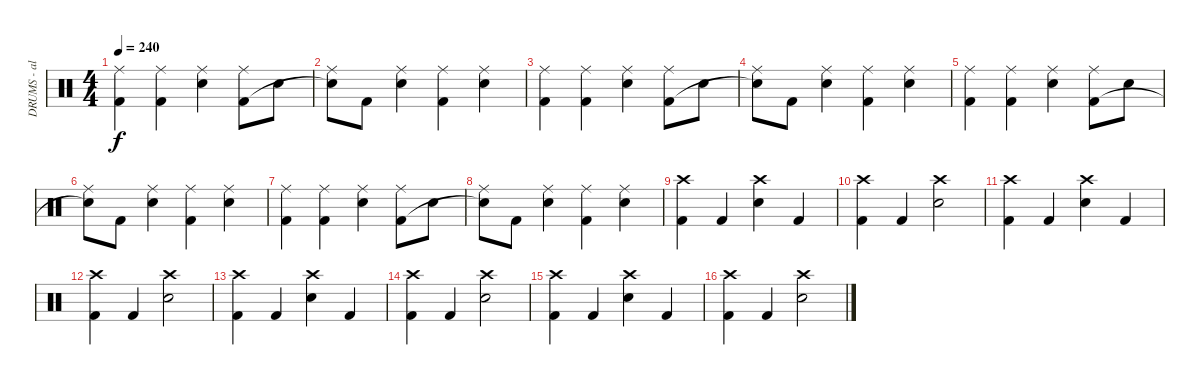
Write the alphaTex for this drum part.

\track ("DRUMS - alastor" "DRUMS - al") {instrument percussion}
\staff {score}
\articulation defaults
\ts (4 4)
\tempo 240
\clef neutral
\ks c
("Ride (middle)" "Kick (hit) 2").4{dy f} ("Ride (middle)" "Kick (hit) 2").4 ("Ride (middle)" "Snare (hit) 2").4 ("Ride (middle)" "Kick (hit) 2").8 "Snare (hit) 2".8 |
("Ride (middle)" "Snare (hit) 2"{t}).8 "Kick (hit) 2".8 ("Ride (middle)" "Snare (hit) 2").4 ("Ride (middle)" "Kick (hit) 2").4 ("Ride (middle)" "Snare (hit) 2").4 |
("Ride (middle)" "Kick (hit) 2").4 ("Ride (middle)" "Kick (hit) 2").4 ("Ride (middle)" "Snare (hit) 2").4 ("Ride (middle)" "Kick (hit) 2").8 "Snare (hit) 2".8 |
("Ride (middle)" "Snare (hit) 2"{t}).8 "Kick (hit) 2".8 ("Ride (middle)" "Snare (hit) 2").4 ("Ride (middle)" "Kick (hit) 2").4 ("Ride (middle)" "Snare (hit) 2").4 |
("Ride (middle)" "Kick (hit) 2").4 ("Ride (middle)" "Kick (hit) 2").4 ("Ride (middle)" "Snare (hit) 2").4 ("Ride (middle)" "Kick (hit) 2").8 "Snare (hit) 2".8 |
("Ride (middle)" "Snare (hit) 2"{t}).8 "Kick (hit) 2".8 ("Ride (middle)" "Snare (hit) 2").4 ("Ride (middle)" "Kick (hit) 2").4 ("Ride (middle)" "Snare (hit) 2").4 |
("Ride (middle)" "Kick (hit) 2").4 ("Ride (middle)" "Kick (hit) 2").4 ("Ride (middle)" "Snare (hit) 2").4 ("Ride (middle)" "Kick (hit) 2").8 "Snare (hit) 2".8 |
("Ride (middle)" "Snare (hit) 2"{t}).8 "Kick (hit) 2".8 ("Ride (middle)" "Snare (hit) 2").4 ("Ride (middle)" "Kick (hit) 2").4 ("Ride (middle)" "Snare (hit) 2").4 |
("Crash high (hit)" "Kick (hit) 2").4 "Kick (hit) 2".4 ("Crash high (hit)" "Snare (hit) 2").4 "Kick (hit) 2".4 |
("Crash high (hit)" "Kick (hit) 2").4 "Kick (hit) 2".4 ("Crash high (hit)" "Snare (hit) 2").2 |
("Crash high (hit)" "Kick (hit) 2").4 "Kick (hit) 2".4 ("Crash high (hit)" "Snare (hit) 2").4 "Kick (hit) 2".4 |
("Crash high (hit)" "Kick (hit) 2").4 "Kick (hit) 2".4 ("Crash high (hit)" "Snare (hit) 2").2 |
("Crash high (hit)" "Kick (hit) 2").4 "Kick (hit) 2".4 ("Crash high (hit)" "Snare (hit) 2").4 "Kick (hit) 2".4 |
("Crash high (hit)" "Kick (hit) 2").4 "Kick (hit) 2".4 ("Crash high (hit)" "Snare (hit) 2").2 |
("Crash high (hit)" "Kick (hit) 2").4 "Kick (hit) 2".4 ("Crash high (hit)" "Snare (hit) 2").4 "Kick (hit) 2".4 |
("Crash high (hit)" "Kick (hit) 2").4 "Kick (hit) 2".4 ("Crash high (hit)" "Snare (hit) 2").2
